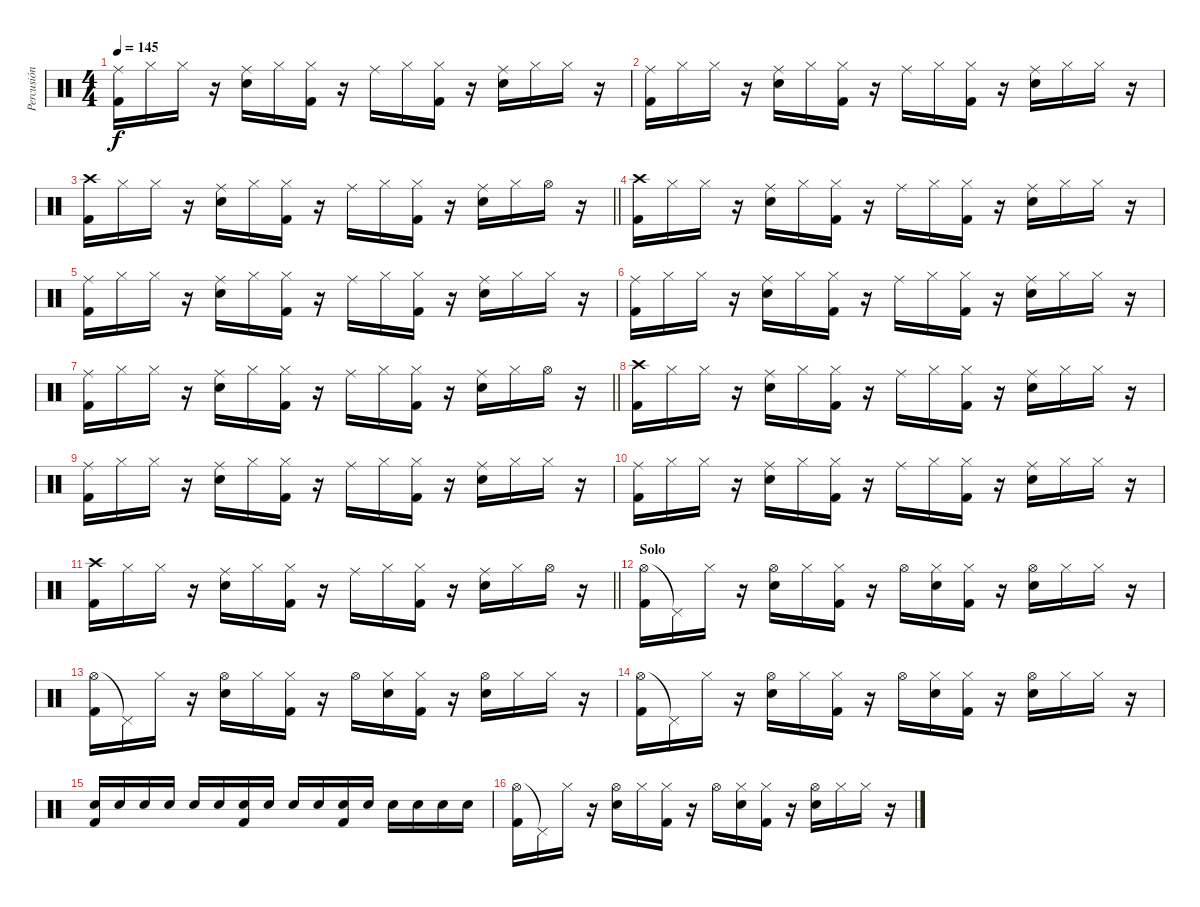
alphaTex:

\track ("Percusión" "Percusión") {instrument percussion}
\staff {score}
\articulation defaults
\ts (4 4)
\tempo 145
\clef neutral
\ks c
("Ride (middle)" "Kick (hit) 2").16{dy f} "Hi-Hat (closed)".16 "Hi-Hat (closed)".16 r.16 ("Ride (middle)" "Electric Snare (hit)").16 "Hi-Hat (closed)".16 ("Hi-Hat (closed)" "Kick (hit) 2").16 r.16 "Ride (middle)".16 "Hi-Hat (closed)".16 ("Hi-Hat (closed)" "Kick (hit) 2").16 r.16 ("Ride (middle)" "Electric Snare (hit)").16 "Hi-Hat (closed)".16 "Hi-Hat (closed)".16 r.16 |
("Ride (middle)" "Kick (hit) 2").16 "Hi-Hat (closed)".16 "Hi-Hat (closed)".16 r.16 ("Ride (middle)" "Electric Snare (hit)").16 "Hi-Hat (closed)".16 ("Hi-Hat (closed)" "Kick (hit) 2").16 r.16 "Ride (middle)".16 "Hi-Hat (closed)".16 ("Hi-Hat (closed)" "Kick (hit) 2").16 r.16 ("Ride (middle)" "Electric Snare (hit)").16 "Hi-Hat (closed)".16 "Hi-Hat (closed)".16 r.16 |
\barLineRight lightlight
("Crash high (hit)" "Kick (hit) 2").16 "Hi-Hat (closed)".16 "Hi-Hat (closed)".16 r.16 ("Ride (middle)" "Electric Snare (hit)").16 "Hi-Hat (closed)".16 ("Hi-Hat (closed)" "Kick (hit) 2").16 r.16 "Ride (middle)".16 "Hi-Hat (closed)".16 ("Hi-Hat (closed)" "Kick (hit) 2").16 r.16 ("Ride (middle)" "Electric Snare (hit)").16 "Hi-Hat (closed)".16 "Hi-Hat (open)".16 r.16 |
("Crash high (hit)" "Kick (hit) 2").16 "Hi-Hat (closed)".16 "Hi-Hat (closed)".16 r.16 ("Ride (middle)" "Electric Snare (hit)").16 "Hi-Hat (closed)".16 ("Hi-Hat (closed)" "Kick (hit) 2").16 r.16 "Ride (middle)".16 "Hi-Hat (closed)".16 ("Hi-Hat (closed)" "Kick (hit) 2").16 r.16 ("Ride (middle)" "Electric Snare (hit)").16 "Hi-Hat (closed)".16 "Hi-Hat (closed)".16 r.16 |
("Ride (middle)" "Kick (hit) 2").16 "Hi-Hat (closed)".16 "Hi-Hat (closed)".16 r.16 ("Ride (middle)" "Electric Snare (hit)").16 "Hi-Hat (closed)".16 ("Hi-Hat (closed)" "Kick (hit) 2").16 r.16 "Ride (middle)".16 "Hi-Hat (closed)".16 ("Hi-Hat (closed)" "Kick (hit) 2").16 r.16 ("Ride (middle)" "Electric Snare (hit)").16 "Hi-Hat (closed)".16 "Hi-Hat (closed)".16 r.16 |
("Ride (middle)" "Kick (hit) 2").16 "Hi-Hat (closed)".16 "Hi-Hat (closed)".16 r.16 ("Ride (middle)" "Electric Snare (hit)").16 "Hi-Hat (closed)".16 ("Hi-Hat (closed)" "Kick (hit) 2").16 r.16 "Ride (middle)".16 "Hi-Hat (closed)".16 ("Hi-Hat (closed)" "Kick (hit) 2").16 r.16 ("Ride (middle)" "Electric Snare (hit)").16 "Hi-Hat (closed)".16 "Hi-Hat (closed)".16 r.16 |
\barLineRight lightlight
("Ride (middle)" "Kick (hit) 2").16 "Hi-Hat (closed)".16 "Hi-Hat (closed)".16 r.16 ("Ride (middle)" "Electric Snare (hit)").16 "Hi-Hat (closed)".16 ("Hi-Hat (closed)" "Kick (hit) 2").16 r.16 "Ride (middle)".16 "Hi-Hat (closed)".16 ("Hi-Hat (closed)" "Kick (hit) 2").16 r.16 ("Ride (middle)" "Electric Snare (hit)").16 "Hi-Hat (closed)".16 "Hi-Hat (open)".16 r.16 |
("Crash high (hit)" "Kick (hit) 2").16 "Hi-Hat (closed)".16 "Hi-Hat (closed)".16 r.16 ("Ride (middle)" "Electric Snare (hit)").16 "Hi-Hat (closed)".16 ("Hi-Hat (closed)" "Kick (hit) 2").16 r.16 "Ride (middle)".16 "Hi-Hat (closed)".16 ("Hi-Hat (closed)" "Kick (hit) 2").16 r.16 ("Ride (middle)" "Electric Snare (hit)").16 "Hi-Hat (closed)".16 "Hi-Hat (closed)".16 r.16 |
("Ride (middle)" "Kick (hit) 2").16 "Hi-Hat (closed)".16 "Hi-Hat (closed)".16 r.16 ("Ride (middle)" "Electric Snare (hit)").16 "Hi-Hat (closed)".16 ("Hi-Hat (closed)" "Kick (hit) 2").16 r.16 "Ride (middle)".16 "Hi-Hat (closed)".16 ("Hi-Hat (closed)" "Kick (hit) 2").16 r.16 ("Ride (middle)" "Electric Snare (hit)").16 "Hi-Hat (closed)".16 "Hi-Hat (closed)".16 r.16 |
("Ride (middle)" "Kick (hit) 2").16 "Hi-Hat (closed)".16 "Hi-Hat (closed)".16 r.16 ("Ride (middle)" "Electric Snare (hit)").16 "Hi-Hat (closed)".16 ("Hi-Hat (closed)" "Kick (hit) 2").16 r.16 "Ride (middle)".16 "Hi-Hat (closed)".16 ("Hi-Hat (closed)" "Kick (hit) 2").16 r.16 ("Ride (middle)" "Electric Snare (hit)").16 "Hi-Hat (closed)".16 "Hi-Hat (closed)".16 r.16 |
\barLineRight lightlight
("Crash high (hit)" "Kick (hit) 2").16 "Hi-Hat (closed)".16 "Hi-Hat (closed)".16 r.16 ("Ride (middle)" "Electric Snare (hit)").16 "Hi-Hat (closed)".16 ("Hi-Hat (closed)" "Kick (hit) 2").16 r.16 "Ride (middle)".16 "Hi-Hat (closed)".16 ("Hi-Hat (closed)" "Kick (hit) 2").16 r.16 ("Ride (middle)" "Electric Snare (hit)").16 "Hi-Hat (closed)".16 "Hi-Hat (open)".16 r.16 |
\section ("" "Solo")
("Hi-Hat (open)" "Kick (hit) 2").16 "Pedal Hi-Hat (hit)"{t}.16 "Hi-Hat (closed)".16 r.16 ("Hi-Hat (open)" "Electric Snare (hit)").16 "Hi-Hat (closed)".16 ("Hi-Hat (closed)" "Kick (hit) 2").16 r.16 "Hi-Hat (open)".16 ("Hi-Hat (closed)" "Electric Snare (hit)").16 ("Hi-Hat (closed)" "Kick (hit) 2").16 r.16 ("Hi-Hat (open)" "Electric Snare (hit)").16 "Hi-Hat (closed)".16 "Hi-Hat (closed)".16 r.16 |
("Hi-Hat (open)" "Kick (hit) 2").16 "Pedal Hi-Hat (hit)"{t}.16 "Hi-Hat (closed)".16 r.16 ("Hi-Hat (open)" "Electric Snare (hit)").16 "Hi-Hat (closed)".16 ("Hi-Hat (closed)" "Kick (hit) 2").16 r.16 "Hi-Hat (open)".16 ("Hi-Hat (closed)" "Electric Snare (hit)").16 ("Hi-Hat (closed)" "Kick (hit) 2").16 r.16 ("Hi-Hat (open)" "Electric Snare (hit)").16 "Hi-Hat (closed)".16 "Hi-Hat (closed)".16 r.16 |
("Hi-Hat (open)" "Kick (hit) 2").16 "Pedal Hi-Hat (hit)"{t}.16 "Hi-Hat (closed)".16 r.16 ("Hi-Hat (open)" "Electric Snare (hit)").16 "Hi-Hat (closed)".16 ("Hi-Hat (closed)" "Kick (hit) 2").16 r.16 "Hi-Hat (open)".16 ("Hi-Hat (closed)" "Electric Snare (hit)").16 ("Hi-Hat (closed)" "Kick (hit) 2").16 r.16 ("Hi-Hat (open)" "Electric Snare (hit)").16 "Hi-Hat (closed)".16 "Hi-Hat (closed)".16 r.16 |
("Snare (hit) 2" "Kick (hit) 2").16 "Snare (hit) 2".16 "Snare (hit) 2".16 "Snare (hit) 2".16 "Snare (hit) 2".16 "Snare (hit) 2".16 ("Snare (hit) 2" "Kick (hit) 2").16 "Snare (hit) 2".16 "Snare (hit) 2".16 "Snare (hit) 2".16 ("Snare (hit) 2" "Kick (hit) 2").16 "Snare (hit) 2".16 "Snare (hit) 2".16 "Snare (hit) 2".16 "Snare (hit) 2".16 "Snare (hit) 2".16 |
("Hi-Hat (open)" "Kick (hit) 2").16 "Pedal Hi-Hat (hit)"{t}.16 "Hi-Hat (closed)".16 r.16 ("Hi-Hat (open)" "Electric Snare (hit)").16 "Hi-Hat (closed)".16 ("Hi-Hat (closed)" "Kick (hit) 2").16 r.16 "Hi-Hat (open)".16 ("Hi-Hat (closed)" "Electric Snare (hit)").16 ("Hi-Hat (closed)" "Kick (hit) 2").16 r.16 ("Hi-Hat (open)" "Electric Snare (hit)").16 "Hi-Hat (closed)".16 "Hi-Hat (closed)".16 r.16
